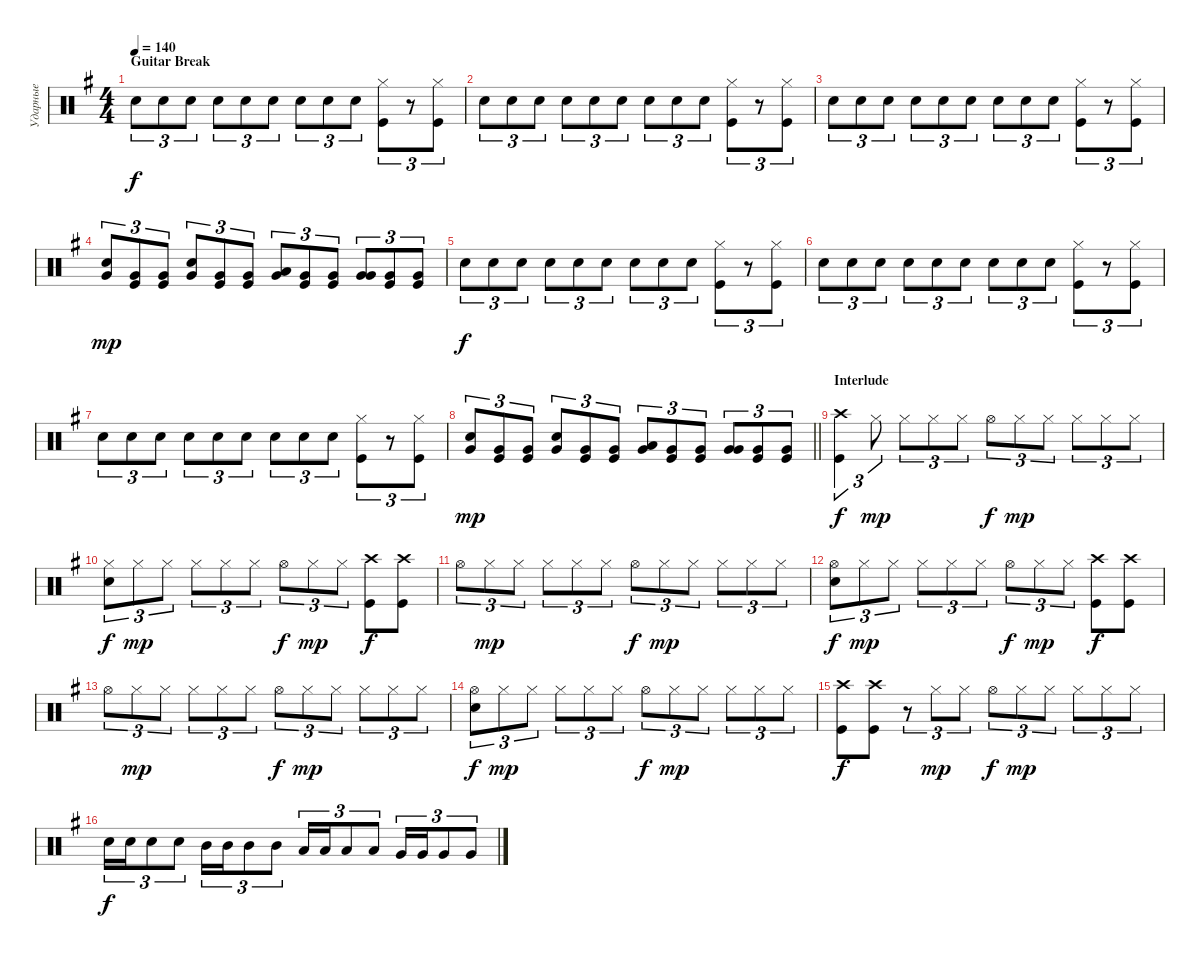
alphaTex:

\track ("Ударные" "Ударные") {instrument percussion}
\staff {score}
\articulation defaults
\ts (4 4)
\section ("" "Guitar Break")
\tempo 140
\clef neutral
\ks eminor "Snare (hit) 2".8{tu (3 2) dy f} "Snare (hit) 2".8{tu (3 2)} "Snare (hit) 2".8{tu (3 2)} "Snare (hit) 2".8{tu (3 2)} "Snare (hit) 2".8{tu (3 2)} "Snare (hit) 2".8{tu (3 2)} "Snare (hit) 2".8{tu (3 2)} "Snare (hit) 2".8{tu (3 2)} "Snare (hit) 2".8{tu (3 2)}
("Kick (hit)" "Hi-Hat (closed)").8{tu (3 2)} r.8{tu (3 2)} ("Hi-Hat (closed)" "Kick (hit)").8{tu (3 2)} |
"Snare (hit) 2".8{tu (3 2)} "Snare (hit) 2".8{tu (3 2)} "Snare (hit) 2".8{tu (3 2)} "Snare (hit) 2".8{tu (3 2)} "Snare (hit) 2".8{tu (3 2)} "Snare (hit) 2".8{tu (3 2)} "Snare (hit) 2".8{tu (3 2)} "Snare (hit) 2".8{tu (3 2)} "Snare (hit) 2".8{tu (3 2)} ("Kick (hit)" "Hi-Hat (closed)").8{tu (3 2)} r.8{tu (3 2)} ("Hi-Hat (closed)" "Kick (hit)").8{tu (3 2)} |
"Snare (hit) 2".8{tu (3 2)} "Snare (hit) 2".8{tu (3 2)} "Snare (hit) 2".8{tu (3 2)} "Snare (hit) 2".8{tu (3 2)} "Snare (hit) 2".8{tu (3 2)} "Snare (hit) 2".8{tu (3 2)} "Snare (hit) 2".8{tu (3 2)} "Snare (hit) 2".8{tu (3 2)} "Snare (hit) 2".8{tu (3 2)} ("Kick (hit)" "Hi-Hat (closed)").8{tu (3 2)} r.8{tu (3 2)} ("Hi-Hat (closed)" "Kick (hit)").8{tu (3 2)} |
("Snare (hit) 2" "Very Low Tom (hit)").8{tu (3 2) bd 240 dy mp} ("Kick (hit)" "Very Low Tom (hit)").8{tu (3 2)} ("Kick (hit)" "Very Low Tom (hit)").8{tu (3 2)} ("Snare (hit) 2" "Very Low Tom (hit)").8{tu (3 2) bd 240} ("Kick (hit)" "Very Low Tom (hit)").8{tu (3 2)} ("Kick (hit)" "Very Low Tom (hit)").8{tu (3 2)} ("Low Tom (hit)" "Very Low Tom (hit)").8{tu (3 2) bd 240} ("Kick (hit)" "Very Low Tom (hit)").8{tu (3 2)} ("Kick (hit)" "Very Low Tom (hit)").8{tu (3 2)} ("Very Low Tom (hit)" "Very Low Tom (hit)").8{tu (3 2) bd 240} ("Kick (hit)" "Very Low Tom (hit)").8{tu (3 2)} ("Kick (hit)" "Very Low Tom (hit)").8{tu (3 2)} |
"Snare (hit) 2".8{tu (3 2) dy f} "Snare (hit) 2".8{tu (3 2)} "Snare (hit) 2".8{tu (3 2)} "Snare (hit) 2".8{tu (3 2)} "Snare (hit) 2".8{tu (3 2)} "Snare (hit) 2".8{tu (3 2)} "Snare (hit) 2".8{tu (3 2)} "Snare (hit) 2".8{tu (3 2)} "Snare (hit) 2".8{tu (3 2)} ("Kick (hit)" "Hi-Hat (closed)").8{tu (3 2)} r.8{tu (3 2)} ("Hi-Hat (closed)" "Kick (hit)").8{tu (3 2)} |
"Snare (hit) 2".8{tu (3 2)} "Snare (hit) 2".8{tu (3 2)} "Snare (hit) 2".8{tu (3 2)} "Snare (hit) 2".8{tu (3 2)} "Snare (hit) 2".8{tu (3 2)} "Snare (hit) 2".8{tu (3 2)} "Snare (hit) 2".8{tu (3 2)} "Snare (hit) 2".8{tu (3 2)} "Snare (hit) 2".8{tu (3 2)} ("Kick (hit)" "Hi-Hat (closed)").8{tu (3 2)} r.8{tu (3 2)} ("Hi-Hat (closed)" "Kick (hit)").8{tu (3 2)} |
"Snare (hit) 2".8{tu (3 2)} "Snare (hit) 2".8{tu (3 2)} "Snare (hit) 2".8{tu (3 2)} "Snare (hit) 2".8{tu (3 2)} "Snare (hit) 2".8{tu (3 2)} "Snare (hit) 2".8{tu (3 2)} "Snare (hit) 2".8{tu (3 2)} "Snare (hit) 2".8{tu (3 2)} "Snare (hit) 2".8{tu (3 2)} ("Kick (hit)" "Hi-Hat (closed)").8{tu (3 2)} r.8{tu (3 2)} ("Hi-Hat (closed)" "Kick (hit)").8{tu (3 2)} |
\barLineRight lightlight
("Snare (hit) 2" "Very Low Tom (hit)").8{tu (3 2) bd 240 dy mp} ("Kick (hit)" "Very Low Tom (hit)").8{tu (3 2)} ("Kick (hit)" "Very Low Tom (hit)").8{tu (3 2)} ("Snare (hit) 2" "Very Low Tom (hit)").8{tu (3 2) bd 240} ("Kick (hit)" "Very Low Tom (hit)").8{tu (3 2)} ("Kick (hit)" "Very Low Tom (hit)").8{tu (3 2)} ("Low Tom (hit)" "Very Low Tom (hit)").8{tu (3 2) bd 240} ("Kick (hit)" "Very Low Tom (hit)").8{tu (3 2)} ("Kick (hit)" "Very Low Tom (hit)").8{tu (3 2)} ("Very Low Tom (hit)" "Very Low Tom (hit)").8{tu (3 2) bd 240} ("Kick (hit)" "Very Low Tom (hit)").8{tu (3 2)} ("Kick (hit)" "Very Low Tom (hit)").8{tu (3 2)} |
\section ("" "Interlude")
("Kick (hit)" "Crash high (hit)").4{tu (3 2) dy f} "Hi-Hat (closed)".8{tu (3 2) dy mp} "Hi-Hat (closed)".8{tu (3 2)} "Hi-Hat (closed)".8{tu (3 2)} "Hi-Hat (closed)".8{tu (3 2)} "Hi-Hat (open)".8{tu (3 2) dy f} "Hi-Hat (closed)".8{tu (3 2) dy mp} "Hi-Hat (closed)".8{tu (3 2)} "Hi-Hat (closed)".8{tu (3 2)} "Hi-Hat (closed)".8{tu (3 2)} "Hi-Hat (closed)".8{tu (3 2)} |
("Hi-Hat (closed)" "Snare (hit) 2").8{tu (3 2) dy f} "Hi-Hat (closed)".8{tu (3 2) dy mp} "Hi-Hat (closed)".8{tu (3 2)} "Hi-Hat (closed)".8{tu (3 2)} "Hi-Hat (closed)".8{tu (3 2)} "Hi-Hat (closed)".8{tu (3 2)} "Hi-Hat (open)".8{tu (3 2) dy f} "Hi-Hat (closed)".8{tu (3 2) dy mp} "Hi-Hat (closed)".8{tu (3 2)} ("Kick (hit)" "Crash high (hit)").8{dy f} ("Kick (hit)" "Crash high (hit)").8 |
"Hi-Hat (open)".8{tu (3 2)} "Hi-Hat (closed)".8{tu (3 2) dy mp} "Hi-Hat (closed)".8{tu (3 2)} "Hi-Hat (closed)".8{tu (3 2)} "Hi-Hat (closed)".8{tu (3 2)} "Hi-Hat (closed)".8{tu (3 2)} "Hi-Hat (open)".8{tu (3 2) dy f} "Hi-Hat (closed)".8{tu (3 2) dy mp} "Hi-Hat (closed)".8{tu (3 2)} "Hi-Hat (closed)".8{tu (3 2)} "Hi-Hat (closed)".8{tu (3 2)} "Hi-Hat (closed)".8{tu (3 2)} |
("Snare (hit) 2" "Hi-Hat (open)").8{tu (3 2) dy f} "Hi-Hat (closed)".8{tu (3 2) dy mp} "Hi-Hat (closed)".8{tu (3 2)} "Hi-Hat (closed)".8{tu (3 2)} "Hi-Hat (closed)".8{tu (3 2)} "Hi-Hat (closed)".8{tu (3 2)} "Hi-Hat (open)".8{tu (3 2) dy f} "Hi-Hat (closed)".8{tu (3 2) dy mp} "Hi-Hat (closed)".8{tu (3 2)} ("Kick (hit)" "Crash high (hit)").8{dy f} ("Kick (hit)" "Crash high (hit)").8 |
"Hi-Hat (open)".8{tu (3 2)} "Hi-Hat (closed)".8{tu (3 2) dy mp} "Hi-Hat (closed)".8{tu (3 2)} "Hi-Hat (closed)".8{tu (3 2)} "Hi-Hat (closed)".8{tu (3 2)} "Hi-Hat (closed)".8{tu (3 2)} "Hi-Hat (open)".8{tu (3 2) dy f} "Hi-Hat (closed)".8{tu (3 2) dy mp} "Hi-Hat (closed)".8{tu (3 2)} "Hi-Hat (closed)".8{tu (3 2)} "Hi-Hat (closed)".8{tu (3 2)} "Hi-Hat (closed)".8{tu (3 2)} |
("Hi-Hat (open)" "Snare (hit) 2").8{tu (3 2) dy f} "Hi-Hat (closed)".8{tu (3 2) dy mp} "Hi-Hat (closed)".8{tu (3 2)} "Hi-Hat (closed)".8{tu (3 2)} "Hi-Hat (closed)".8{tu (3 2)} "Hi-Hat (closed)".8{tu (3 2)} "Hi-Hat (open)".8{tu (3 2) dy f} "Hi-Hat (closed)".8{tu (3 2) dy mp} "Hi-Hat (closed)".8{tu (3 2)} "Hi-Hat (closed)".8{tu (3 2)} "Hi-Hat (closed)".8{tu (3 2)} "Hi-Hat (closed)".8{tu (3 2)} |
("Kick (hit)" "Crash high (hit)").8{dy f} ("Crash high (hit)" "Kick (hit)").8 r.8{tu (3 2)} "Hi-Hat (closed)".8{tu (3 2) dy mp} "Hi-Hat (closed)".8{tu (3 2)} "Hi-Hat (open)".8{tu (3 2) dy f} "Hi-Hat (closed)".8{tu (3 2) dy mp} "Hi-Hat (closed)".8{tu (3 2)} "Hi-Hat (closed)".8{tu (3 2)} "Hi-Hat (closed)".8{tu (3 2)} "Hi-Hat (closed)".8{tu (3 2)} |
"Snare (hit) 2".16{tu (3 2) dy f} "Snare (hit) 2".16{tu (3 2)} "Snare (hit) 2".8{tu (3 2)} "Snare (hit) 2".8{tu (3 2)} "Mid Tom (hit)".16{tu (3 2)} "Mid Tom (hit)".16{tu (3 2)} "Mid Tom (hit)".8{tu (3 2)} "Mid Tom (hit)".8{tu (3 2)} "Low Tom (hit)".16{tu (3 2)} "Low Tom (hit)".16{tu (3 2)} "Low Tom (hit)".8{tu (3 2)} "Low Tom (hit)".8{tu (3 2)} "Very Low Tom (hit)".16{tu (3 2)} "Very Low Tom (hit)".16{tu (3 2)} "Very Low Tom (hit)".8{tu (3 2)} "Very Low Tom (hit)".8{tu (3 2)}
